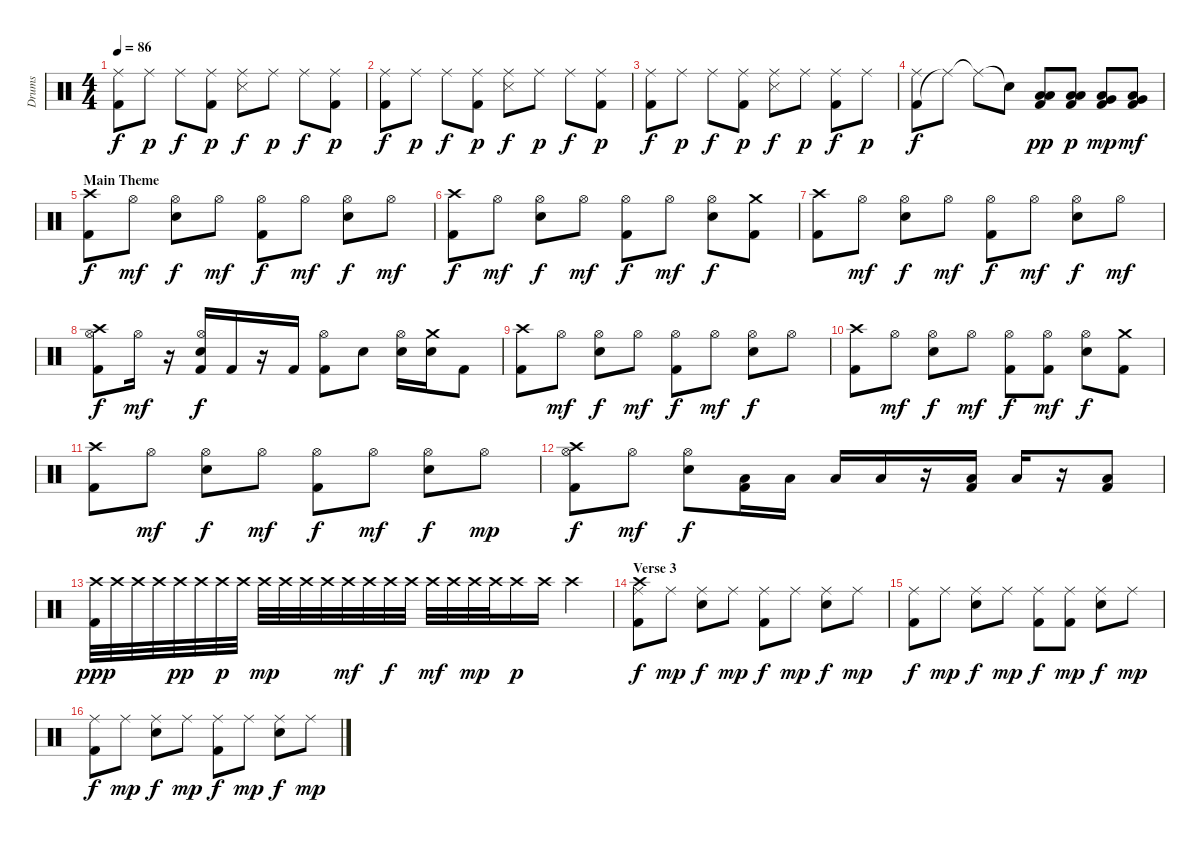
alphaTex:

\track ("Drums" "Drums") {instrument percussion}
\staff {score}
\articulation defaults
\ts (4 4)
\tempo 86
\clef neutral
\ks c
("Kick (hit) 2" "Ride (middle)").8{dy f} "Ride (middle)".8{dy p} "Ride (middle)".8{dy f} ("Kick (hit) 2" "Ride (middle)").8{dy p} ("Ride (middle)" "Snare (side stick) 3").8{dy f} "Ride (middle)".8{dy p} "Ride (middle)".8{dy f} ("Kick (hit) 2" "Ride (middle)").8{dy p} |
("Kick (hit) 2" "Ride (middle)").8{dy f} "Ride (middle)".8{dy p} "Ride (middle)".8{dy f} ("Kick (hit) 2" "Ride (middle)").8{dy p} ("Ride (middle)" "Snare (side stick) 3").8{dy f} "Ride (middle)".8{dy p} "Ride (middle)".8{dy f} ("Kick (hit) 2" "Ride (middle)").8{dy p} |
("Kick (hit) 2" "Ride (middle)").8{dy f} "Ride (middle)".8{dy p} "Ride (middle)".8{dy f} ("Kick (hit) 2" "Ride (middle)").8{dy p} ("Ride (middle)" "Snare (side stick) 3").8{dy f} "Ride (middle)".8{dy p} ("Kick (hit) 2" "Ride (middle)").8{dy f} "Ride (middle)".8{dy p} |
("Kick (hit) 2" "Ride (middle)").8{dy f} "Ride (middle)"{t}.8 "Ride (middle)"{t}.8 "Snare (hit)"{t}.8 ("Kick (hit) 2" "Low Floor Tom (hit)" "Low Tom (hit)").8{dy pp} ("Kick (hit) 2" "Low Floor Tom (hit)" "Low Tom (hit)").8{dy p} ("Kick (hit) 2" "Low Tom (hit)" "Very Low Tom (hit)").8{dy mp} ("Kick (hit) 2" "Very Low Tom (hit)" "Low Floor Tom (hit)").8{dy mf} |
\section ("" "Main Theme")
("Kick (hit) 2" "Crash high (hit)").8{dy f} "Hi-Hat (open)".8{dy mf} ("Hi-Hat (open)" "Electric Snare (hit)").8{dy f} "Hi-Hat (open)".8{dy mf} ("Kick (hit) 2" "Hi-Hat (open)").8{dy f} "Hi-Hat (open)".8{dy mf} ("Hi-Hat (open)" "Electric Snare (hit)").8{dy f} "Hi-Hat (open)".8{dy mf} |
("Kick (hit) 2" "Crash high (hit)").8{dy f} "Hi-Hat (open)".8{dy mf} ("Hi-Hat (open)" "Electric Snare (hit)").8{dy f} "Hi-Hat (open)".8{dy mf} ("Kick (hit) 2" "Hi-Hat (open)").8{dy f} "Hi-Hat (open)".8{dy mf} ("Hi-Hat (open)" "Electric Snare (hit)").8{dy f} ("Kick (hit) 2" "Crash medium (hit)").8 |
("Kick (hit) 2" "Crash high (hit)").8 "Hi-Hat (open)".8{dy mf} ("Hi-Hat (open)" "Electric Snare (hit)").8{dy f} "Hi-Hat (open)".8{dy mf} ("Kick (hit) 2" "Hi-Hat (open)").8{dy f} "Hi-Hat (open)".8{dy mf} ("Hi-Hat (open)" "Electric Snare (hit)").8{dy f} "Hi-Hat (open)".8{dy mf} |
("Kick (hit) 2" "Hi-Hat (open)" "Crash high (hit)").8{dy f} "Hi-Hat (open)".16{dy mf} r.16 ("Kick (hit) 2" "Hi-Hat (open)" "Electric Snare (hit)").16{dy f} "Kick (hit) 2".16 r.16 "Kick (hit) 2".16 ("Kick (hit) 2" "Hi-Hat (open)").8 "Electric Snare (hit)".8 ("Hi-Hat (open)" "Electric Snare (hit)").16 ("Electric Snare (hit)" "Crash medium (hit)").16 "Kick (hit) 2".8 |
("Kick (hit) 2" "Crash high (hit)").8 "Hi-Hat (open)".8{dy mf} ("Hi-Hat (open)" "Electric Snare (hit)").8{dy f} "Hi-Hat (open)".8{dy mf} ("Kick (hit) 2" "Hi-Hat (open)").8{dy f} "Hi-Hat (open)".8{dy mf} ("Hi-Hat (open)" "Electric Snare (hit)").8{dy f} "Hi-Hat (open)".8 |
("Kick (hit) 2" "Crash high (hit)").8 "Hi-Hat (open)".8{dy mf} ("Hi-Hat (open)" "Electric Snare (hit)").8{dy f} "Hi-Hat (open)".8{dy mf} ("Kick (hit) 2" "Hi-Hat (open)").8{dy f} ("Kick (hit) 2" "Hi-Hat (open)").8{dy mf} ("Hi-Hat (open)" "Electric Snare (hit)").8{dy f} ("Kick (hit) 2" "Crash medium (hit)").8 |
("Kick (hit) 2" "Crash high (hit)").8 "Hi-Hat (open)".8{dy mf} ("Hi-Hat (open)" "Electric Snare (hit)").8{dy f} "Hi-Hat (open)".8{dy mf} ("Kick (hit) 2" "Hi-Hat (open)").8{dy f} "Hi-Hat (open)".8{dy mf} ("Hi-Hat (open)" "Electric Snare (hit)").8{dy f} "Hi-Hat (open)".8{dy mp} |
("Kick (hit) 2" "Hi-Hat (open)" "Crash high (hit)").8{dy f} "Hi-Hat (open)".8{dy mf} ("Hi-Hat (open)" "Electric Snare (hit)").8{dy f} ("Kick (hit) 2" "Low Tom (hit)").16 "Low Tom (hit)".16 "Low Tom (hit)".16 "Low Tom (hit)".16 r.16 ("Kick (hit) 2" "Low Tom (hit)").16 "Low Tom (hit)".16 r.16 ("Kick (hit) 2" "Low Floor Tom (hit)").8 |
("Kick (hit) 2" "Crash high (hit)").32{dy ppp} "Crash high (hit)".32 "Crash high (hit)".32 "Crash high (hit)".32 "Crash high (hit)".32{dy pp} "Crash high (hit)".32 "Crash high (hit)".32{dy p} "Crash high (hit)".32 "Crash high (hit)".32{dy mp} "Crash high (hit)".32 "Crash high (hit)".32 "Crash high (hit)".32 "Crash high (hit)".32{dy mf} "Crash high (hit)".32 "Crash high (hit)".32{dy f} "Crash high (hit)".32 "Crash high (hit)".32{dy mf} "Crash high (hit)".32 "Crash high (hit)".32{dy mp} "Crash high (hit)".32 "Crash high (hit)".16{dy p} "Crash high (hit)".16 "Crash high (hit)".4 |
\section ("" "Verse 3")
("Kick (hit) 2" "Ride (middle)" "Crash high (hit)").8{dy f} "Ride (middle)".8{dy mp} ("Ride (middle)" "Electric Snare (hit)").8{dy f} "Ride (middle)".8{dy mp} ("Kick (hit) 2" "Ride (middle)").8{dy f} "Ride (middle)".8{dy mp} ("Ride (middle)" "Electric Snare (hit)").8{dy f} "Ride (middle)".8{dy mp} |
("Kick (hit) 2" "Ride (middle)").8{dy f} "Ride (middle)".8{dy mp} ("Ride (middle)" "Electric Snare (hit)").8{dy f} "Ride (middle)".8{dy mp} ("Kick (hit) 2" "Ride (middle)").8{dy f} ("Kick (hit) 2" "Ride (middle)").8{dy mp} ("Ride (middle)" "Electric Snare (hit)").8{dy f} "Ride (middle)".8{dy mp} |
("Kick (hit) 2" "Ride (middle)").8{dy f} "Ride (middle)".8{dy mp} ("Ride (middle)" "Electric Snare (hit)").8{dy f} "Ride (middle)".8{dy mp} ("Kick (hit) 2" "Ride (middle)").8{dy f} "Ride (middle)".8{dy mp} ("Ride (middle)" "Electric Snare (hit)").8{dy f} "Ride (middle)".8{dy mp}
